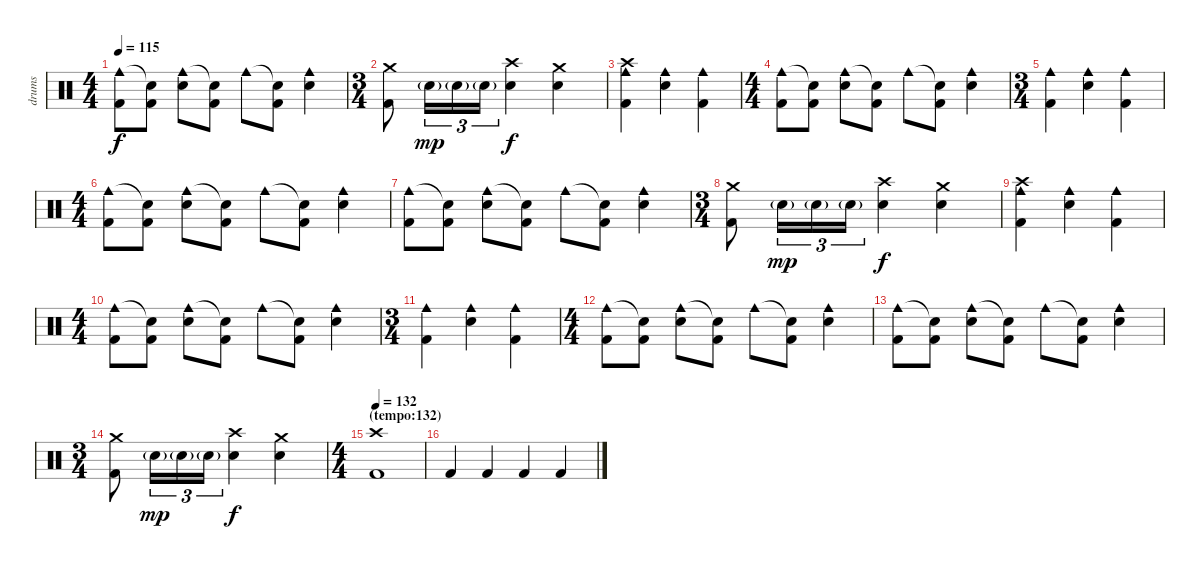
\track ("drums" "drums") {instrument percussion}
\staff {score}
\articulation defaults
\ts (4 4)
\tempo 115
\clef neutral
\ks c
("Cowbell medium (hit)" "Kick (hit) 2").8{dy f} ("Snare (hit)"{t} "Kick (hit) 2").8 ("Cowbell medium (hit)" "Electric Snare (hit)").8 ("Snare (hit)"{t} "Kick (hit) 2").8 "Cowbell medium (hit)".8 ("Snare (hit)"{t} "Kick (hit) 2").8 ("Cowbell medium (hit)" "Electric Snare (hit)").4 |
\ts (3 4)
("Crash medium (hit)" "Kick (hit) 2").8 "Electric Snare (hit)"{g}.16{tu (3 2) dy mp} "Electric Snare (hit)"{g}.16{tu (3 2)} "Electric Snare (hit)"{g}.16{tu (3 2)} ("Crash high (hit)" "Electric Snare (hit)").4{dy f} ("Crash medium (hit)" "Electric Snare (hit)").4 |
("Cowbell medium (hit)" "Crash high (hit)" "Kick (hit) 2").4 ("Cowbell medium (hit)" "Electric Snare (hit)").4 ("Cowbell medium (hit)" "Kick (hit) 2").4 |
\ts (4 4)
("Cowbell medium (hit)" "Kick (hit) 2").8 ("Snare (hit)"{t} "Kick (hit) 2").8 ("Cowbell medium (hit)" "Electric Snare (hit)").8 ("Snare (hit)"{t} "Kick (hit) 2").8 "Cowbell medium (hit)".8 ("Snare (hit)"{t} "Kick (hit) 2").8 ("Cowbell medium (hit)" "Electric Snare (hit)").4 |
\ts (3 4)
("Cowbell medium (hit)" "Kick (hit) 2").4 ("Cowbell medium (hit)" "Electric Snare (hit)").4 ("Cowbell medium (hit)" "Kick (hit) 2").4 |
\ts (4 4)
("Cowbell medium (hit)" "Kick (hit) 2").8 ("Snare (hit)"{t} "Kick (hit) 2").8 ("Cowbell medium (hit)" "Electric Snare (hit)").8 ("Snare (hit)"{t} "Kick (hit) 2").8 "Cowbell medium (hit)".8 ("Snare (hit)"{t} "Kick (hit) 2").8 ("Cowbell medium (hit)" "Electric Snare (hit)").4 |
("Cowbell medium (hit)" "Kick (hit) 2").8 ("Snare (hit)"{t} "Kick (hit) 2").8 ("Cowbell medium (hit)" "Electric Snare (hit)").8 ("Snare (hit)"{t} "Kick (hit) 2").8 "Cowbell medium (hit)".8 ("Snare (hit)"{t} "Kick (hit) 2").8 ("Cowbell medium (hit)" "Electric Snare (hit)").4 |
\ts (3 4)
("Crash medium (hit)" "Kick (hit) 2").8 "Electric Snare (hit)"{g}.16{tu (3 2) dy mp} "Electric Snare (hit)"{g}.16{tu (3 2)} "Electric Snare (hit)"{g}.16{tu (3 2)} ("Crash high (hit)" "Electric Snare (hit)").4{dy f} ("Crash medium (hit)" "Electric Snare (hit)").4 |
("Cowbell medium (hit)" "Crash high (hit)" "Kick (hit) 2").4 ("Cowbell medium (hit)" "Electric Snare (hit)").4 ("Cowbell medium (hit)" "Kick (hit) 2").4 |
\ts (4 4)
("Cowbell medium (hit)" "Kick (hit) 2").8 ("Snare (hit)"{t} "Kick (hit) 2").8 ("Cowbell medium (hit)" "Electric Snare (hit)").8 ("Snare (hit)"{t} "Kick (hit) 2").8 "Cowbell medium (hit)".8 ("Snare (hit)"{t} "Kick (hit) 2").8 ("Cowbell medium (hit)" "Electric Snare (hit)").4 |
\ts (3 4)
("Cowbell medium (hit)" "Kick (hit) 2").4 ("Cowbell medium (hit)" "Electric Snare (hit)").4 ("Cowbell medium (hit)" "Kick (hit) 2").4 |
\ts (4 4)
("Cowbell medium (hit)" "Kick (hit) 2").8 ("Snare (hit)"{t} "Kick (hit) 2").8 ("Cowbell medium (hit)" "Electric Snare (hit)").8 ("Snare (hit)"{t} "Kick (hit) 2").8 "Cowbell medium (hit)".8 ("Snare (hit)"{t} "Kick (hit) 2").8 ("Cowbell medium (hit)" "Electric Snare (hit)").4 |
("Cowbell medium (hit)" "Kick (hit) 2").8 ("Snare (hit)"{t} "Kick (hit) 2").8 ("Cowbell medium (hit)" "Electric Snare (hit)").8 ("Snare (hit)"{t} "Kick (hit) 2").8 "Cowbell medium (hit)".8 ("Snare (hit)"{t} "Kick (hit) 2").8 ("Cowbell medium (hit)" "Electric Snare (hit)").4 |
\ts (3 4)
("Crash medium (hit)" "Kick (hit) 2").8 "Electric Snare (hit)"{g}.16{tu (3 2) dy mp} "Electric Snare (hit)"{g}.16{tu (3 2)} "Electric Snare (hit)"{g}.16{tu (3 2)} ("Crash high (hit)" "Electric Snare (hit)").4{dy f} ("Crash medium (hit)" "Electric Snare (hit)").4 |
\ts (4 4)
\section ("" "(tempo:132)")
\tempo 132
("Crash high (hit)" "Kick (hit) 2").1 |
"Kick (hit) 2".4 "Kick (hit) 2".4 "Kick (hit) 2".4 "Kick (hit) 2".4
